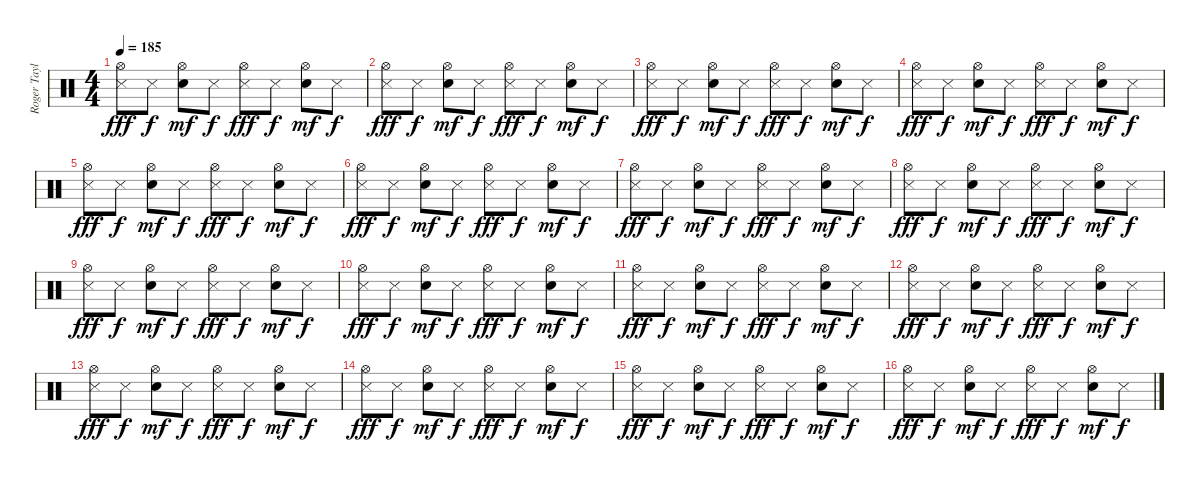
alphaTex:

\track ("Roger Taylor" "Roger Tayl") {instrument percussion}
\staff {score}
\articulation defaults
\ts (4 4)
\tempo 185
\clef neutral
\ks c
("Metronome (hit)" "Hi-Hat (open)").8{dy fff} "Metronome (hit)".8{dy f} ("Snare (hit) 2" "Hi-Hat (open)").8{dy mf} "Metronome (hit)".8{dy f} ("Metronome (hit)" "Hi-Hat (open)").8{dy fff} "Metronome (hit)".8{dy f} ("Snare (hit) 2" "Hi-Hat (open)").8{dy mf} "Metronome (hit)".8{dy f} |
("Metronome (hit)" "Hi-Hat (open)").8{dy fff} "Metronome (hit)".8{dy f} ("Snare (hit) 2" "Hi-Hat (open)").8{dy mf} "Metronome (hit)".8{dy f} ("Metronome (hit)" "Hi-Hat (open)").8{dy fff} "Metronome (hit)".8{dy f} ("Snare (hit) 2" "Hi-Hat (open)").8{dy mf} "Metronome (hit)".8{dy f} |
("Metronome (hit)" "Hi-Hat (open)").8{dy fff} "Metronome (hit)".8{dy f} ("Snare (hit) 2" "Hi-Hat (open)").8{dy mf} "Metronome (hit)".8{dy f} ("Metronome (hit)" "Hi-Hat (open)").8{dy fff} "Metronome (hit)".8{dy f} ("Snare (hit) 2" "Hi-Hat (open)").8{dy mf} "Metronome (hit)".8{dy f} |
("Metronome (hit)" "Hi-Hat (open)").8{dy fff} "Metronome (hit)".8{dy f} ("Snare (hit) 2" "Hi-Hat (open)").8{dy mf} "Metronome (hit)".8{dy f} ("Metronome (hit)" "Hi-Hat (open)").8{dy fff} "Metronome (hit)".8{dy f} ("Snare (hit) 2" "Hi-Hat (open)").8{dy mf} "Metronome (hit)".8{dy f} |
("Metronome (hit)" "Hi-Hat (open)").8{dy fff} "Metronome (hit)".8{dy f} ("Snare (hit) 2" "Hi-Hat (open)").8{dy mf} "Metronome (hit)".8{dy f} ("Metronome (hit)" "Hi-Hat (open)").8{dy fff} "Metronome (hit)".8{dy f} ("Snare (hit) 2" "Hi-Hat (open)").8{dy mf} "Metronome (hit)".8{dy f} |
("Metronome (hit)" "Hi-Hat (open)").8{dy fff} "Metronome (hit)".8{dy f} ("Snare (hit) 2" "Hi-Hat (open)").8{dy mf} "Metronome (hit)".8{dy f} ("Metronome (hit)" "Hi-Hat (open)").8{dy fff} "Metronome (hit)".8{dy f} ("Snare (hit) 2" "Hi-Hat (open)").8{dy mf} "Metronome (hit)".8{dy f} |
("Metronome (hit)" "Hi-Hat (open)").8{dy fff} "Metronome (hit)".8{dy f} ("Snare (hit) 2" "Hi-Hat (open)").8{dy mf} "Metronome (hit)".8{dy f} ("Metronome (hit)" "Hi-Hat (open)").8{dy fff} "Metronome (hit)".8{dy f} ("Snare (hit) 2" "Hi-Hat (open)").8{dy mf} "Metronome (hit)".8{dy f} |
("Metronome (hit)" "Hi-Hat (open)").8{dy fff} "Metronome (hit)".8{dy f} ("Snare (hit) 2" "Hi-Hat (open)").8{dy mf} "Metronome (hit)".8{dy f} ("Metronome (hit)" "Hi-Hat (open)").8{dy fff} "Metronome (hit)".8{dy f} ("Snare (hit) 2" "Hi-Hat (open)").8{dy mf} "Metronome (hit)".8{dy f} |
("Metronome (hit)" "Hi-Hat (open)").8{dy fff} "Metronome (hit)".8{dy f} ("Snare (hit) 2" "Hi-Hat (open)").8{dy mf} "Metronome (hit)".8{dy f} ("Metronome (hit)" "Hi-Hat (open)").8{dy fff} "Metronome (hit)".8{dy f} ("Snare (hit) 2" "Hi-Hat (open)").8{dy mf} "Metronome (hit)".8{dy f} |
("Metronome (hit)" "Hi-Hat (open)").8{dy fff} "Metronome (hit)".8{dy f} ("Snare (hit) 2" "Hi-Hat (open)").8{dy mf} "Metronome (hit)".8{dy f} ("Metronome (hit)" "Hi-Hat (open)").8{dy fff} "Metronome (hit)".8{dy f} ("Snare (hit) 2" "Hi-Hat (open)").8{dy mf} "Metronome (hit)".8{dy f} |
("Metronome (hit)" "Hi-Hat (open)").8{dy fff} "Metronome (hit)".8{dy f} ("Snare (hit) 2" "Hi-Hat (open)").8{dy mf} "Metronome (hit)".8{dy f} ("Metronome (hit)" "Hi-Hat (open)").8{dy fff} "Metronome (hit)".8{dy f} ("Snare (hit) 2" "Hi-Hat (open)").8{dy mf} "Metronome (hit)".8{dy f} |
("Metronome (hit)" "Hi-Hat (open)").8{dy fff} "Metronome (hit)".8{dy f} ("Snare (hit) 2" "Hi-Hat (open)").8{dy mf} "Metronome (hit)".8{dy f} ("Metronome (hit)" "Hi-Hat (open)").8{dy fff} "Metronome (hit)".8{dy f} ("Snare (hit) 2" "Hi-Hat (open)").8{dy mf} "Metronome (hit)".8{dy f} |
("Metronome (hit)" "Hi-Hat (open)").8{dy fff} "Metronome (hit)".8{dy f} ("Snare (hit) 2" "Hi-Hat (open)").8{dy mf} "Metronome (hit)".8{dy f} ("Metronome (hit)" "Hi-Hat (open)").8{dy fff} "Metronome (hit)".8{dy f} ("Snare (hit) 2" "Hi-Hat (open)").8{dy mf} "Metronome (hit)".8{dy f} |
("Metronome (hit)" "Hi-Hat (open)").8{dy fff} "Metronome (hit)".8{dy f} ("Snare (hit) 2" "Hi-Hat (open)").8{dy mf} "Metronome (hit)".8{dy f} ("Metronome (hit)" "Hi-Hat (open)").8{dy fff} "Metronome (hit)".8{dy f} ("Snare (hit) 2" "Hi-Hat (open)").8{dy mf} "Metronome (hit)".8{dy f} |
("Metronome (hit)" "Hi-Hat (open)").8{dy fff} "Metronome (hit)".8{dy f} ("Snare (hit) 2" "Hi-Hat (open)").8{dy mf} "Metronome (hit)".8{dy f} ("Metronome (hit)" "Hi-Hat (open)").8{dy fff} "Metronome (hit)".8{dy f} ("Snare (hit) 2" "Hi-Hat (open)").8{dy mf} "Metronome (hit)".8{dy f} |
("Metronome (hit)" "Hi-Hat (open)").8{dy fff} "Metronome (hit)".8{dy f} ("Snare (hit) 2" "Hi-Hat (open)").8{dy mf} "Metronome (hit)".8{dy f} ("Metronome (hit)" "Hi-Hat (open)").8{dy fff} "Metronome (hit)".8{dy f} ("Snare (hit) 2" "Hi-Hat (open)").8{dy mf} "Metronome (hit)".8{dy f}
